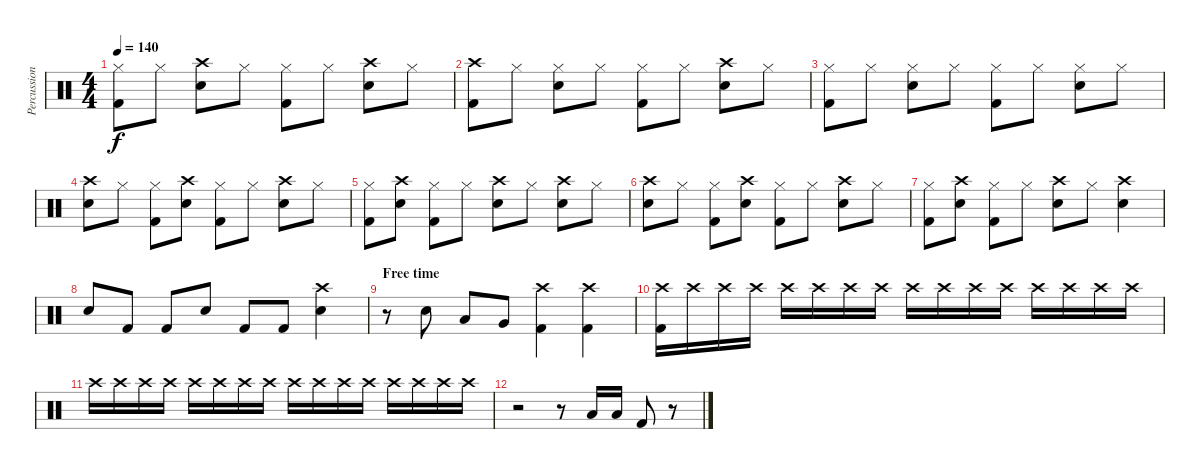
\track ("Percussion" "Percussion") {instrument percussion}
\staff {score}
\articulation defaults
\ts (4 4)
\tempo 140
\clef neutral
\ks c
("Hi-Hat (closed)" "Kick (hit) 2").8{dy f} "Hi-Hat (closed)".8 ("Crash high (hit)" "Electric Snare (hit)").8 "Hi-Hat (closed)".8 ("Hi-Hat (closed)" "Kick (hit) 2").8 "Hi-Hat (closed)".8 ("Crash high (hit)" "Electric Snare (hit)").8 "Hi-Hat (closed)".8 |
("Crash high (hit)" "Kick (hit) 2").8 "Hi-Hat (closed)".8 ("Hi-Hat (closed)" "Electric Snare (hit)").8 "Hi-Hat (closed)".8 ("Hi-Hat (closed)" "Kick (hit) 2").8 "Hi-Hat (closed)".8 ("Crash high (hit)" "Electric Snare (hit)").8 "Hi-Hat (closed)".8 |
("Hi-Hat (closed)" "Kick (hit) 2").8 "Hi-Hat (closed)".8 ("Hi-Hat (closed)" "Electric Snare (hit)").8 "Hi-Hat (closed)".8 ("Hi-Hat (closed)" "Kick (hit) 2").8 "Hi-Hat (closed)".8 ("Hi-Hat (closed)" "Electric Snare (hit)").8 "Hi-Hat (closed)".8 |
("Crash high (hit)" "Electric Snare (hit)").8 "Hi-Hat (closed)".8 ("Hi-Hat (closed)" "Kick (hit) 2").8 ("Crash high (hit)" "Electric Snare (hit)").8 ("Hi-Hat (closed)" "Kick (hit) 2").8 "Hi-Hat (closed)".8 ("Crash high (hit)" "Electric Snare (hit)").8 "Hi-Hat (closed)".8 |
("Hi-Hat (closed)" "Kick (hit) 2").8 ("Crash high (hit)" "Electric Snare (hit)").8 ("Hi-Hat (closed)" "Kick (hit) 2").8 "Hi-Hat (closed)".8 ("Crash high (hit)" "Electric Snare (hit)").8 "Hi-Hat (closed)".8 ("Crash high (hit)" "Electric Snare (hit)").8 "Hi-Hat (closed)".8 |
("Crash high (hit)" "Electric Snare (hit)").8 "Hi-Hat (closed)".8 ("Hi-Hat (closed)" "Kick (hit) 2").8 ("Crash high (hit)" "Electric Snare (hit)").8 ("Hi-Hat (closed)" "Kick (hit) 2").8 "Hi-Hat (closed)".8 ("Crash high (hit)" "Electric Snare (hit)").8 "Hi-Hat (closed)".8 |
("Hi-Hat (closed)" "Kick (hit) 2").8 ("Crash high (hit)" "Electric Snare (hit)").8 ("Hi-Hat (closed)" "Kick (hit) 2").8 "Hi-Hat (closed)".8 ("Crash high (hit)" "Electric Snare (hit)").8 "Hi-Hat (closed)".8 ("Crash high (hit)" "Electric Snare (hit)").4 |
"Electric Snare (hit)".8 "Kick (hit) 2".8 "Kick (hit) 2".8 "Electric Snare (hit)".8 "Kick (hit) 2".8 "Kick (hit) 2".8 ("Crash high (hit)" "Electric Snare (hit)").4 |
\section ("" "Free time")
r.8 "Electric Snare (hit)".8 "Low Tom (hit)".8 "Very Low Tom (hit)".8 ("Crash high (hit)" "Kick (hit) 2").4 ("Crash high (hit)" "Kick (hit) 2").4 |
("Crash high (hit)" "Kick (hit) 2").16 "Crash high (hit)".16 "Crash high (hit)".16 "Crash high (hit)".16 "Crash high (hit)".16 "Crash high (hit)".16 "Crash high (hit)".16 "Crash high (hit)".16 "Crash high (hit)".16 "Crash high (hit)".16 "Crash high (hit)".16 "Crash high (hit)".16 "Crash high (hit)".16 "Crash high (hit)".16 "Crash high (hit)".16 "Crash high (hit)".16 |
"Crash high (hit)".16 "Crash high (hit)".16 "Crash high (hit)".16 "Crash high (hit)".16 "Crash high (hit)".16 "Crash high (hit)".16 "Crash high (hit)".16 "Crash high (hit)".16 "Crash high (hit)".16 "Crash high (hit)".16 "Crash high (hit)".16 "Crash high (hit)".16 "Crash high (hit)".16 "Crash high (hit)".16 "Crash high (hit)".16 "Crash high (hit)".16 |
r.2 r.8 "Low Tom (hit)".16 "Low Tom (hit)".16 "Kick (hit) 2".8 r.8
